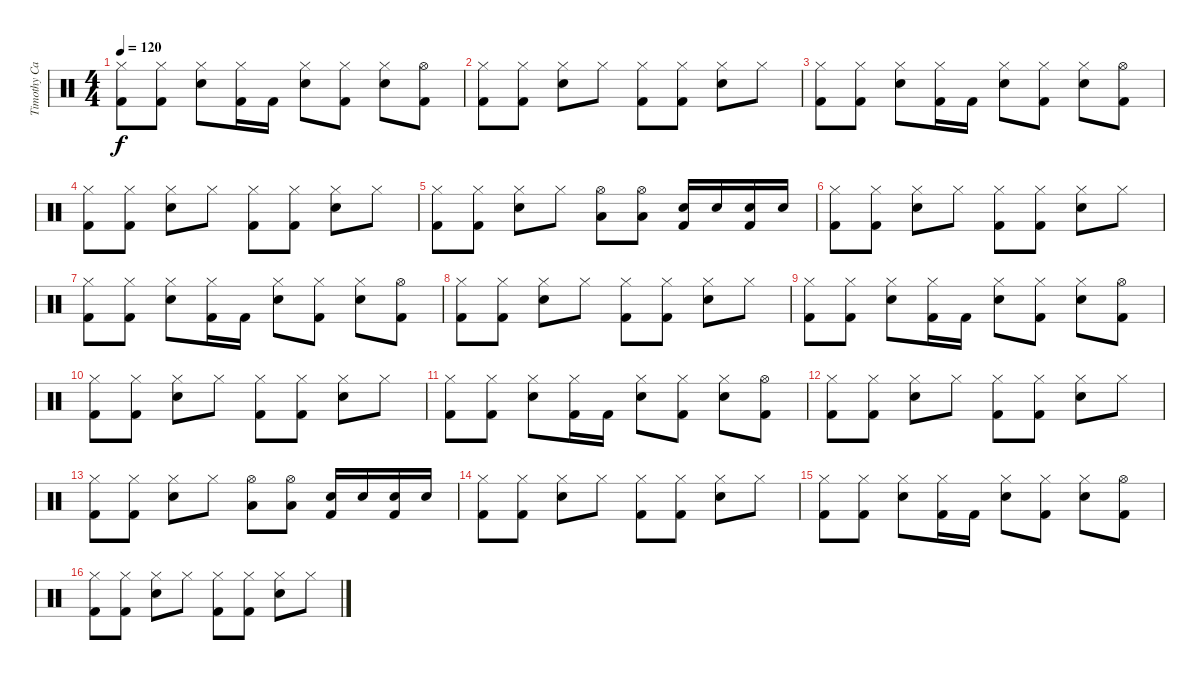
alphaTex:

\track ("Timothy Calkin" "Timothy Ca") {instrument percussion}
\staff {score}
\articulation defaults
\ts (4 4)
\tempo 120
\clef neutral
\ks c
("Hi-Hat (closed)" "Kick (hit) 2").8{dy f} ("Hi-Hat (closed)" "Kick (hit) 2").8 ("Hi-Hat (closed)" "Snare (hit) 2").8 ("Hi-Hat (closed)" "Kick (hit) 2").16 "Kick (hit) 2".16 ("Hi-Hat (closed)" "Snare (hit) 2").8 ("Hi-Hat (closed)" "Kick (hit) 2").8 ("Hi-Hat (closed)" "Snare (hit) 2").8 ("Hi-Hat (open)" "Kick (hit) 2").8 |
("Hi-Hat (closed)" "Kick (hit) 2").8 ("Hi-Hat (closed)" "Kick (hit) 2").8 ("Hi-Hat (closed)" "Snare (hit) 2").8 "Hi-Hat (closed)".8 ("Hi-Hat (closed)" "Kick (hit) 2").8 ("Hi-Hat (closed)" "Kick (hit) 2").8 ("Hi-Hat (closed)" "Snare (hit) 2").8 "Hi-Hat (closed)".8 |
("Hi-Hat (closed)" "Kick (hit) 2").8 ("Hi-Hat (closed)" "Kick (hit) 2").8 ("Hi-Hat (closed)" "Snare (hit) 2").8 ("Hi-Hat (closed)" "Kick (hit) 2").16 "Kick (hit) 2".16 ("Hi-Hat (closed)" "Snare (hit) 2").8 ("Hi-Hat (closed)" "Kick (hit) 2").8 ("Hi-Hat (closed)" "Snare (hit) 2").8 ("Hi-Hat (open)" "Kick (hit) 2").8 |
("Hi-Hat (closed)" "Kick (hit) 2").8 ("Hi-Hat (closed)" "Kick (hit) 2").8 ("Hi-Hat (closed)" "Snare (hit) 2").8 "Hi-Hat (closed)".8 ("Hi-Hat (closed)" "Kick (hit) 2").8 ("Hi-Hat (closed)" "Kick (hit) 2").8 ("Hi-Hat (closed)" "Snare (hit) 2").8 "Hi-Hat (closed)".8 |
("Hi-Hat (closed)" "Kick (hit) 2").8 ("Hi-Hat (closed)" "Kick (hit) 2").8 ("Hi-Hat (closed)" "Snare (hit) 2").8 "Hi-Hat (closed)".8 ("Hi-Hat (open)" "Low Floor Tom (hit)").8 ("Hi-Hat (open)" "Low Floor Tom (hit)").8 ("Snare (hit) 2" "Kick (hit) 2").16 "Snare (hit) 2".16 ("Snare (hit) 2" "Kick (hit) 2").16 "Snare (hit) 2".16 |
("Hi-Hat (closed)" "Kick (hit) 2").8 ("Hi-Hat (closed)" "Kick (hit) 2").8 ("Hi-Hat (closed)" "Snare (hit) 2").8 "Hi-Hat (closed)".8 ("Hi-Hat (closed)" "Kick (hit) 2").8 ("Hi-Hat (closed)" "Kick (hit) 2").8 ("Hi-Hat (closed)" "Snare (hit) 2").8 "Hi-Hat (closed)".8 |
("Hi-Hat (closed)" "Kick (hit) 2").8 ("Hi-Hat (closed)" "Kick (hit) 2").8 ("Hi-Hat (closed)" "Snare (hit) 2").8 ("Hi-Hat (closed)" "Kick (hit) 2").16 "Kick (hit) 2".16 ("Hi-Hat (closed)" "Snare (hit) 2").8 ("Hi-Hat (closed)" "Kick (hit) 2").8 ("Hi-Hat (closed)" "Snare (hit) 2").8 ("Hi-Hat (open)" "Kick (hit) 2").8 |
("Hi-Hat (closed)" "Kick (hit) 2").8 ("Hi-Hat (closed)" "Kick (hit) 2").8 ("Hi-Hat (closed)" "Snare (hit) 2").8 "Hi-Hat (closed)".8 ("Hi-Hat (closed)" "Kick (hit) 2").8 ("Hi-Hat (closed)" "Kick (hit) 2").8 ("Hi-Hat (closed)" "Snare (hit) 2").8 "Hi-Hat (closed)".8 |
("Hi-Hat (closed)" "Kick (hit) 2").8 ("Hi-Hat (closed)" "Kick (hit) 2").8 ("Hi-Hat (closed)" "Snare (hit) 2").8 ("Hi-Hat (closed)" "Kick (hit) 2").16 "Kick (hit) 2".16 ("Hi-Hat (closed)" "Snare (hit) 2").8 ("Hi-Hat (closed)" "Kick (hit) 2").8 ("Hi-Hat (closed)" "Snare (hit) 2").8 ("Hi-Hat (open)" "Kick (hit) 2").8 |
("Hi-Hat (closed)" "Kick (hit) 2").8 ("Hi-Hat (closed)" "Kick (hit) 2").8 ("Hi-Hat (closed)" "Snare (hit) 2").8 "Hi-Hat (closed)".8 ("Hi-Hat (closed)" "Kick (hit) 2").8 ("Hi-Hat (closed)" "Kick (hit) 2").8 ("Hi-Hat (closed)" "Snare (hit) 2").8 "Hi-Hat (closed)".8 |
("Hi-Hat (closed)" "Kick (hit) 2").8 ("Hi-Hat (closed)" "Kick (hit) 2").8 ("Hi-Hat (closed)" "Snare (hit) 2").8 ("Hi-Hat (closed)" "Kick (hit) 2").16 "Kick (hit) 2".16 ("Hi-Hat (closed)" "Snare (hit) 2").8 ("Hi-Hat (closed)" "Kick (hit) 2").8 ("Hi-Hat (closed)" "Snare (hit) 2").8 ("Hi-Hat (open)" "Kick (hit) 2").8 |
("Hi-Hat (closed)" "Kick (hit) 2").8 ("Hi-Hat (closed)" "Kick (hit) 2").8 ("Hi-Hat (closed)" "Snare (hit) 2").8 "Hi-Hat (closed)".8 ("Hi-Hat (closed)" "Kick (hit) 2").8 ("Hi-Hat (closed)" "Kick (hit) 2").8 ("Hi-Hat (closed)" "Snare (hit) 2").8 "Hi-Hat (closed)".8 |
("Hi-Hat (closed)" "Kick (hit) 2").8 ("Hi-Hat (closed)" "Kick (hit) 2").8 ("Hi-Hat (closed)" "Snare (hit) 2").8 "Hi-Hat (closed)".8 ("Hi-Hat (open)" "Low Floor Tom (hit)").8 ("Hi-Hat (open)" "Low Floor Tom (hit)").8 ("Snare (hit) 2" "Kick (hit) 2").16 "Snare (hit) 2".16 ("Snare (hit) 2" "Kick (hit) 2").16 "Snare (hit) 2".16 |
("Hi-Hat (closed)" "Kick (hit) 2").8 ("Hi-Hat (closed)" "Kick (hit) 2").8 ("Hi-Hat (closed)" "Snare (hit) 2").8 "Hi-Hat (closed)".8 ("Hi-Hat (closed)" "Kick (hit) 2").8 ("Hi-Hat (closed)" "Kick (hit) 2").8 ("Hi-Hat (closed)" "Snare (hit) 2").8 "Hi-Hat (closed)".8 |
("Hi-Hat (closed)" "Kick (hit) 2").8 ("Hi-Hat (closed)" "Kick (hit) 2").8 ("Hi-Hat (closed)" "Snare (hit) 2").8 ("Hi-Hat (closed)" "Kick (hit) 2").16 "Kick (hit) 2".16 ("Hi-Hat (closed)" "Snare (hit) 2").8 ("Hi-Hat (closed)" "Kick (hit) 2").8 ("Hi-Hat (closed)" "Snare (hit) 2").8 ("Hi-Hat (open)" "Kick (hit) 2").8 |
("Hi-Hat (closed)" "Kick (hit) 2").8 ("Hi-Hat (closed)" "Kick (hit) 2").8 ("Hi-Hat (closed)" "Snare (hit) 2").8 "Hi-Hat (closed)".8 ("Hi-Hat (closed)" "Kick (hit) 2").8 ("Hi-Hat (closed)" "Kick (hit) 2").8 ("Hi-Hat (closed)" "Snare (hit) 2").8 "Hi-Hat (closed)".8
